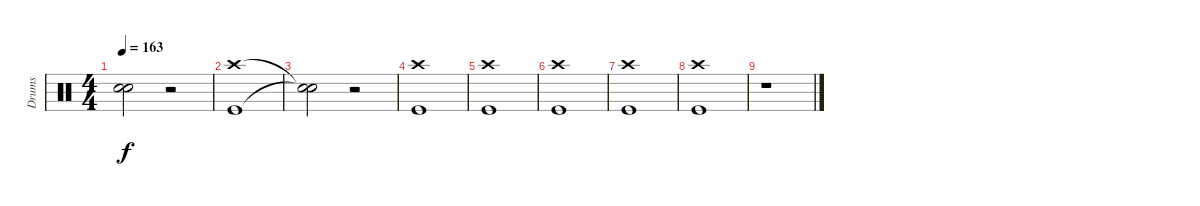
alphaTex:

\track ("Drums" "Drums") {instrument percussion}
\staff {score}
\articulation defaults
\ts (4 4)
\tempo 163
\clef neutral
\ks c
("Snare (hit)"{t} "Snare (hit)"{t}).2{dy f} r.2 |
("Crash high (hit)" "Kick (hit)").1 |
("Snare (hit)"{t} "Snare (hit)"{t}).2 r.2 |
("Crash high (hit)" "Kick (hit)").1 |
("Crash high (hit)" "Kick (hit)").1 |
("Crash high (hit)" "Kick (hit)").1 |
("Crash high (hit)" "Kick (hit)").1 |
("Crash high (hit)" "Kick (hit)").1 |
r.1
